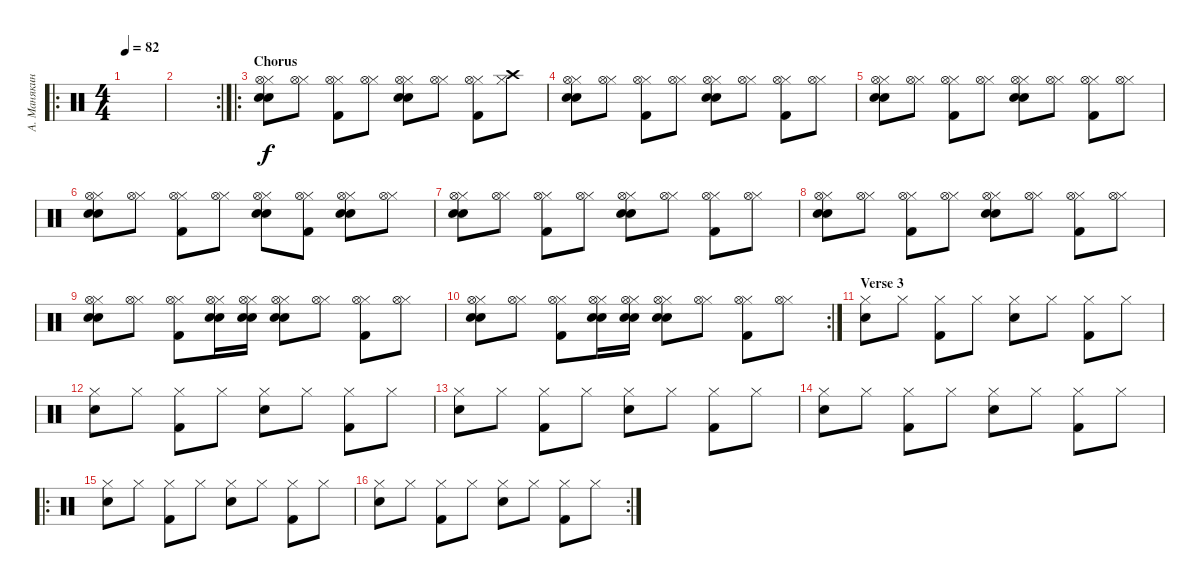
\track ("А. Манякин" "А. Манякин") {instrument percussion}
\staff {score}
\articulation defaults
\ro
\ts (4 4)
\section ("" "")
\tempo 82
\clef neutral
\ks c
|
\rc 2
|
\ro
\section ("" "Chorus")
("Snare (hit) 2" "Hi-Hat (closed)" "Hi-Hat (open)" "Electric Snare (hit)").8 ("Hi-Hat (closed)" "Hi-Hat (open)").8 ("Hi-Hat (closed)" "Hi-Hat (open)" "Kick (hit) 2").8 ("Hi-Hat (closed)" "Hi-Hat (open)").8 ("Snare (hit) 2" "Hi-Hat (closed)" "Hi-Hat (open)" "Electric Snare (hit)").8 ("Hi-Hat (closed)" "Hi-Hat (open)").8 ("Hi-Hat (closed)" "Hi-Hat (open)" "Kick (hit) 2").8 ("Hi-Hat (closed)" "Crash high (hit)").8 |
("Snare (hit) 2" "Hi-Hat (closed)" "Hi-Hat (open)" "Electric Snare (hit)").8 ("Hi-Hat (closed)" "Hi-Hat (open)").8 ("Hi-Hat (closed)" "Hi-Hat (open)" "Kick (hit) 2").8 ("Hi-Hat (closed)" "Hi-Hat (open)").8 ("Snare (hit) 2" "Hi-Hat (closed)" "Hi-Hat (open)" "Electric Snare (hit)").8 ("Hi-Hat (closed)" "Hi-Hat (open)").8 ("Hi-Hat (closed)" "Hi-Hat (open)" "Kick (hit) 2").8 ("Hi-Hat (closed)" "Hi-Hat (open)").8 |
("Snare (hit) 2" "Hi-Hat (closed)" "Hi-Hat (open)" "Electric Snare (hit)").8 ("Hi-Hat (closed)" "Hi-Hat (open)").8 ("Hi-Hat (closed)" "Hi-Hat (open)" "Kick (hit) 2").8 ("Hi-Hat (closed)" "Hi-Hat (open)").8 ("Snare (hit) 2" "Hi-Hat (closed)" "Hi-Hat (open)" "Electric Snare (hit)").8 ("Hi-Hat (closed)" "Hi-Hat (open)").8 ("Hi-Hat (closed)" "Hi-Hat (open)" "Kick (hit) 2").8 ("Hi-Hat (closed)" "Hi-Hat (open)").8 |
("Snare (hit) 2" "Hi-Hat (closed)" "Hi-Hat (open)" "Electric Snare (hit)").8 ("Hi-Hat (closed)" "Hi-Hat (open)").8 ("Hi-Hat (closed)" "Hi-Hat (open)" "Kick (hit) 2").8 ("Hi-Hat (closed)" "Hi-Hat (open)").8 ("Snare (hit) 2" "Hi-Hat (closed)" "Hi-Hat (open)" "Electric Snare (hit)").8 ("Hi-Hat (closed)" "Hi-Hat (open)" "Kick (hit) 2").8 ("Snare (hit) 2" "Hi-Hat (closed)" "Hi-Hat (open)" "Electric Snare (hit)").8 ("Hi-Hat (closed)" "Hi-Hat (open)").8 |
("Snare (hit) 2" "Hi-Hat (closed)" "Hi-Hat (open)" "Electric Snare (hit)").8 ("Hi-Hat (closed)" "Hi-Hat (open)").8 ("Hi-Hat (closed)" "Hi-Hat (open)" "Kick (hit) 2").8 ("Hi-Hat (closed)" "Hi-Hat (open)").8 ("Snare (hit) 2" "Hi-Hat (closed)" "Hi-Hat (open)" "Electric Snare (hit)").8 ("Hi-Hat (closed)" "Hi-Hat (open)").8 ("Hi-Hat (closed)" "Hi-Hat (open)" "Kick (hit) 2").8 ("Hi-Hat (closed)" "Hi-Hat (open)").8 |
("Snare (hit) 2" "Hi-Hat (closed)" "Hi-Hat (open)" "Electric Snare (hit)").8 ("Hi-Hat (closed)" "Hi-Hat (open)").8 ("Hi-Hat (closed)" "Hi-Hat (open)" "Kick (hit) 2").8 ("Hi-Hat (closed)" "Hi-Hat (open)").8 ("Snare (hit) 2" "Hi-Hat (closed)" "Hi-Hat (open)" "Electric Snare (hit)").8 ("Hi-Hat (closed)" "Hi-Hat (open)").8 ("Hi-Hat (closed)" "Hi-Hat (open)" "Kick (hit) 2").8 ("Hi-Hat (closed)" "Hi-Hat (open)").8 |
("Snare (hit) 2" "Hi-Hat (closed)" "Hi-Hat (open)" "Electric Snare (hit)").8 ("Hi-Hat (closed)" "Hi-Hat (open)").8 ("Hi-Hat (closed)" "Hi-Hat (open)" "Kick (hit) 2").8 ("Snare (hit) 2" "Hi-Hat (closed)" "Hi-Hat (open)" "Electric Snare (hit)").16 ("Snare (hit) 2" "Hi-Hat (closed)" "Hi-Hat (open)" "Electric Snare (hit)").16 ("Snare (hit) 2" "Hi-Hat (closed)" "Hi-Hat (open)" "Electric Snare (hit)").8 ("Hi-Hat (closed)" "Hi-Hat (open)").8 ("Hi-Hat (closed)" "Hi-Hat (open)" "Kick (hit) 2").8 ("Hi-Hat (closed)" "Hi-Hat (open)").8 |
\rc 2
("Snare (hit) 2" "Hi-Hat (closed)" "Hi-Hat (open)" "Electric Snare (hit)").8 ("Hi-Hat (closed)" "Hi-Hat (open)").8 ("Hi-Hat (closed)" "Hi-Hat (open)" "Kick (hit) 2").8 ("Snare (hit) 2" "Hi-Hat (closed)" "Hi-Hat (open)" "Electric Snare (hit)").16 ("Snare (hit) 2" "Hi-Hat (closed)" "Hi-Hat (open)" "Electric Snare (hit)").16 ("Snare (hit) 2" "Hi-Hat (closed)" "Hi-Hat (open)" "Electric Snare (hit)").8 ("Hi-Hat (closed)" "Hi-Hat (open)").8 ("Hi-Hat (closed)" "Hi-Hat (open)" "Kick (hit) 2").8 ("Hi-Hat (closed)" "Hi-Hat (open)").8 |
\section ("" "Verse 3")
("Snare (hit) 2" "Hi-Hat (closed)").8 "Hi-Hat (closed)".8 ("Hi-Hat (closed)" "Kick (hit) 2").8 "Hi-Hat (closed)".8 ("Snare (hit) 2" "Hi-Hat (closed)").8 "Hi-Hat (closed)".8 ("Hi-Hat (closed)" "Kick (hit) 2").8 "Hi-Hat (closed)".8 |
("Snare (hit) 2" "Hi-Hat (closed)").8 "Hi-Hat (closed)".8 ("Hi-Hat (closed)" "Kick (hit) 2").8 "Hi-Hat (closed)".8 ("Snare (hit) 2" "Hi-Hat (closed)").8 "Hi-Hat (closed)".8 ("Hi-Hat (closed)" "Kick (hit) 2").8 "Hi-Hat (closed)".8 |
("Snare (hit) 2" "Hi-Hat (closed)").8 "Hi-Hat (closed)".8 ("Hi-Hat (closed)" "Kick (hit) 2").8 "Hi-Hat (closed)".8 ("Snare (hit) 2" "Hi-Hat (closed)").8 "Hi-Hat (closed)".8 ("Hi-Hat (closed)" "Kick (hit) 2").8 "Hi-Hat (closed)".8 |
("Snare (hit) 2" "Hi-Hat (closed)").8 "Hi-Hat (closed)".8 ("Hi-Hat (closed)" "Kick (hit) 2").8 "Hi-Hat (closed)".8 ("Snare (hit) 2" "Hi-Hat (closed)").8 "Hi-Hat (closed)".8 ("Hi-Hat (closed)" "Kick (hit) 2").8 "Hi-Hat (closed)".8 |
\ro
("Snare (hit) 2" "Hi-Hat (closed)").8 "Hi-Hat (closed)".8 ("Hi-Hat (closed)" "Kick (hit) 2").8 "Hi-Hat (closed)".8 ("Snare (hit) 2" "Hi-Hat (closed)").8 "Hi-Hat (closed)".8 ("Hi-Hat (closed)" "Kick (hit) 2").8 "Hi-Hat (closed)".8 |
\rc 2
("Snare (hit) 2" "Hi-Hat (closed)").8 "Hi-Hat (closed)".8 ("Hi-Hat (closed)" "Kick (hit) 2").8 "Hi-Hat (closed)".8 ("Snare (hit) 2" "Hi-Hat (closed)").8 "Hi-Hat (closed)".8 ("Hi-Hat (closed)" "Kick (hit) 2").8 "Hi-Hat (closed)".8
